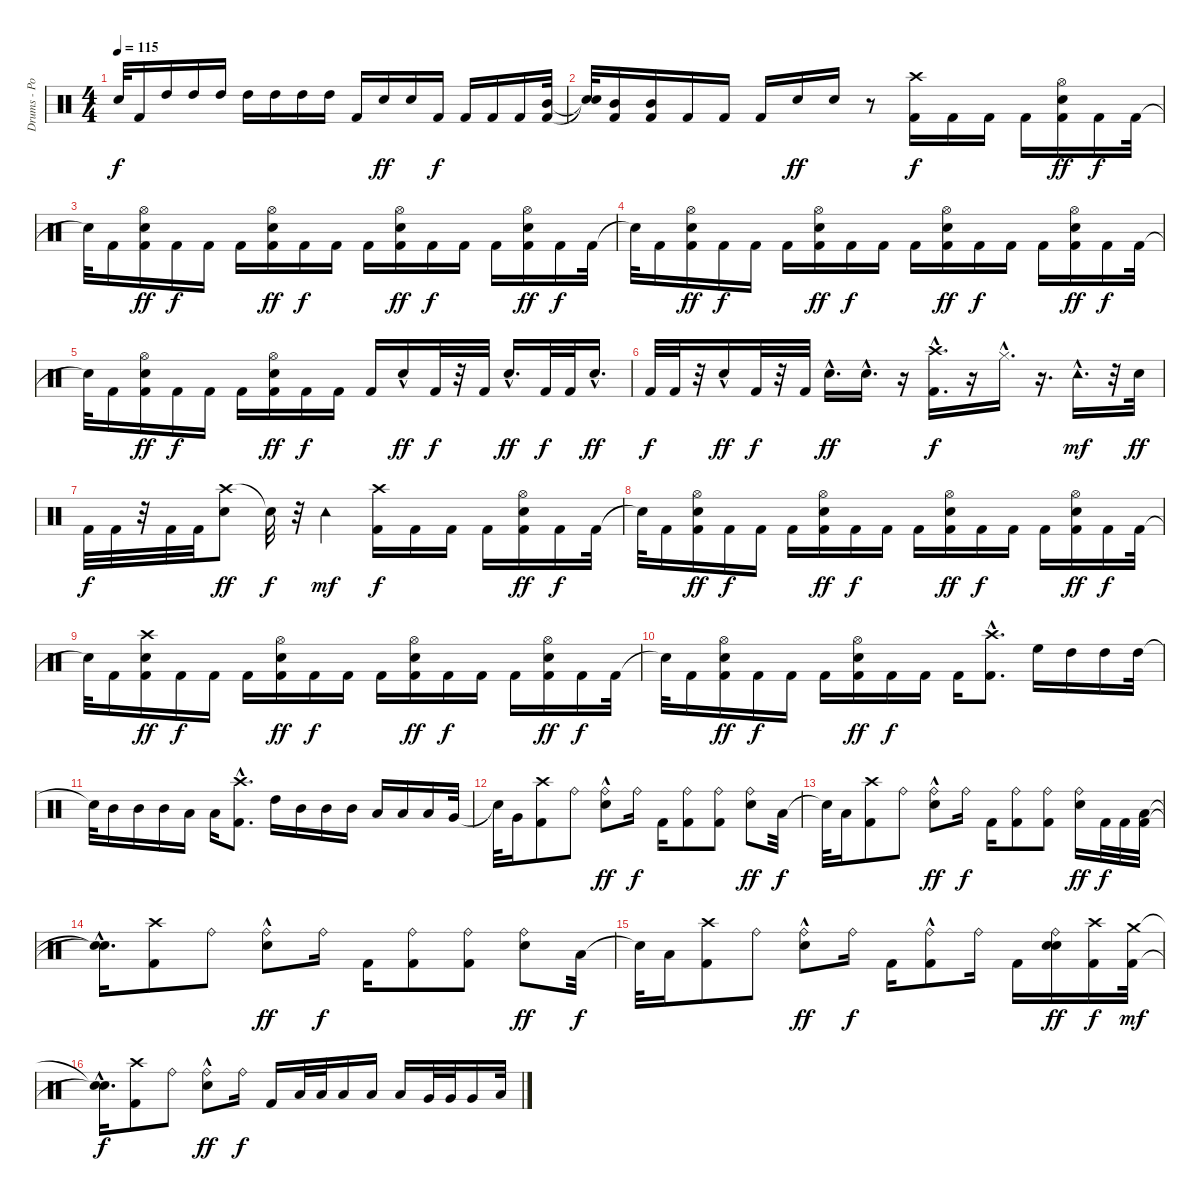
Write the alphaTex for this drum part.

\track ("Drums - Portnoy" "Drums - Po") {instrument percussion}
\staff {score}
\articulation defaults
\ts (4 4)
\tempo 115
\clef neutral
\ks c "Snare (hit)"{t}.32{dy f} "Kick (hit) 2".16 "High Tom (hit)".16 "High Tom (hit)".16 "High Tom (hit)".16 "High Tom (hit)".16 "High Tom (hit)".16 "High Tom (hit)".16 "High Tom (hit)".16 "Kick (hit) 2".16 "Electric Snare (hit)".16{dy ff} "Electric Snare (hit)".16 "Kick (hit) 2".16{dy f} "Kick (hit) 2".16 "Kick (hit) 2".16 "Kick (hit) 2".16
("Kick (hit) 2" "Mid Tom (hit)").32 |
("Snare (hit)"{t} "Snare (hit)"{t}).32 ("Kick (hit) 2" "Mid Tom (hit)").16 ("Kick (hit) 2" "Mid Tom (hit)").16 "Kick (hit) 2".16 "Kick (hit) 2".16 "Kick (hit) 2".16 "Electric Snare (hit)".16{dy ff} "Electric Snare (hit)".16 r.8 ("Crash high (hit)" "Kick (hit) 2").16{dy f} "Kick (hit) 2".16 "Kick (hit) 2".16 "Kick (hit) 2".16 ("Kick (hit) 2" "Hi-Hat (open)" "Electric Snare (hit)").16{dy ff} "Kick (hit) 2".16{dy f} "Kick (hit) 2".32 |
"Snare (hit)"{t}.32 "Kick (hit) 2".16 ("Kick (hit) 2" "Hi-Hat (open)" "Electric Snare (hit)").16{dy ff} "Kick (hit) 2".16{dy f} "Kick (hit) 2".16 "Kick (hit) 2".16 ("Kick (hit) 2" "Hi-Hat (open)" "Electric Snare (hit)").16{dy ff} "Kick (hit) 2".16{dy f} "Kick (hit) 2".16 "Kick (hit) 2".16 ("Kick (hit) 2" "Hi-Hat (open)" "Electric Snare (hit)").16{dy ff} "Kick (hit) 2".16{dy f} "Kick (hit) 2".16 "Kick (hit) 2".16 ("Kick (hit) 2" "Hi-Hat (open)" "Electric Snare (hit)").16{dy ff} "Kick (hit) 2".16{dy f} "Kick (hit) 2".32 |
"Snare (hit)"{t}.32 "Kick (hit) 2".16 ("Kick (hit) 2" "Hi-Hat (open)" "Electric Snare (hit)").16{dy ff} "Kick (hit) 2".16{dy f} "Kick (hit) 2".16 "Kick (hit) 2".16 ("Kick (hit) 2" "Hi-Hat (open)" "Electric Snare (hit)").16{dy ff} "Kick (hit) 2".16{dy f} "Kick (hit) 2".16 "Kick (hit) 2".16 ("Kick (hit) 2" "Hi-Hat (open)" "Electric Snare (hit)").16{dy ff} "Kick (hit) 2".16{dy f} "Kick (hit) 2".16 "Kick (hit) 2".16 ("Kick (hit) 2" "Hi-Hat (open)" "Electric Snare (hit)").16{dy ff} "Kick (hit) 2".16{dy f} "Kick (hit) 2".32 |
"Snare (hit)"{t}.32 "Kick (hit) 2".16 ("Kick (hit) 2" "Hi-Hat (open)" "Electric Snare (hit)").16{dy ff} "Kick (hit) 2".16{dy f} "Kick (hit) 2".16 "Kick (hit) 2".16 ("Kick (hit) 2" "Hi-Hat (open)" "Electric Snare (hit)").16{dy ff} "Kick (hit) 2".16{dy f} "Kick (hit) 2".16 "Kick (hit) 2".16 "Electric Snare (hit)"{hac}.16{dy ff} "Kick (hit) 2".32{dy f} r.32 "Kick (hit) 2".32 "Electric Snare (hit)"{hac}.16{d dy ff} "Kick (hit) 2".32{dy f} "Kick (hit) 2".32 "Electric Snare (hit)"{hac}.16{d dy ff} |
"Kick (hit) 2".32{dy f} "Kick (hit) 2".32 r.32 "Electric Snare (hit)"{hac}.16{dy ff} "Kick (hit) 2".32{dy f} r.32 "Kick (hit) 2".32 "Electric Snare (hit)"{hac}.16{d dy ff} "Electric Snare (hit)"{hac}.16{d} r.16 ("Crash high (hit)"{hac} "Kick (hit) 2"{hac}).16{d dy f} r.16 "Hi-Hat (closed)"{hac}.16{d} r.16{d} "Tambourine (hit)"{hac}.16{d dy mf} r.32 "Electric Snare (hit)".32{dy ff} |
"Kick (hit) 2".32{dy f} "Kick (hit) 2".32 r.32 "Kick (hit) 2".32 "Kick (hit) 2".32 ("Crash high (hit)" "Electric Snare (hit)").8{dy ff} "Snare (hit)"{t}.32{dy f} r.32 "Tambourine (hit)".4{dy mf} ("Kick (hit) 2" "Crash high (hit)").16{dy f} "Kick (hit) 2".16 "Kick (hit) 2".16 "Kick (hit) 2".16 ("Kick (hit) 2" "Hi-Hat (open)" "Electric Snare (hit)").16{dy ff} "Kick (hit) 2".16{dy f} "Kick (hit) 2".32 |
"Snare (hit)"{t}.32 "Kick (hit) 2".16 ("Kick (hit) 2" "Hi-Hat (open)" "Electric Snare (hit)").16{dy ff} "Kick (hit) 2".16{dy f} "Kick (hit) 2".16 "Kick (hit) 2".16 ("Kick (hit) 2" "Hi-Hat (open)" "Electric Snare (hit)").16{dy ff} "Kick (hit) 2".16{dy f} "Kick (hit) 2".16 "Kick (hit) 2".16 ("Kick (hit) 2" "Hi-Hat (open)" "Electric Snare (hit)").16{dy ff} "Kick (hit) 2".16{dy f} "Kick (hit) 2".16 "Kick (hit) 2".16 ("Kick (hit) 2" "Hi-Hat (open)" "Electric Snare (hit)").16{dy ff} "Kick (hit) 2".16{dy f} "Kick (hit) 2".32 |
"Snare (hit)"{t}.32 "Kick (hit) 2".16 ("Kick (hit) 2" "Crash high (hit)" "Electric Snare (hit)").16{dy ff} "Kick (hit) 2".16{dy f} "Kick (hit) 2".16 "Kick (hit) 2".16 ("Kick (hit) 2" "Hi-Hat (open)" "Electric Snare (hit)").16{dy ff} "Kick (hit) 2".16{dy f} "Kick (hit) 2".16 "Kick (hit) 2".16 ("Kick (hit) 2" "Hi-Hat (open)" "Electric Snare (hit)").16{dy ff} "Kick (hit) 2".16{dy f} "Kick (hit) 2".16 "Kick (hit) 2".16 ("Kick (hit) 2" "Hi-Hat (open)" "Electric Snare (hit)").16{dy ff} "Kick (hit) 2".16{dy f} "Kick (hit) 2".32 |
"Snare (hit)"{t}.32 "Kick (hit) 2".16 ("Kick (hit) 2" "Hi-Hat (open)" "Electric Snare (hit)").16{dy ff} "Kick (hit) 2".16{dy f} "Kick (hit) 2".16 "Kick (hit) 2".16 ("Kick (hit) 2" "Hi-Hat (open)" "Electric Snare (hit)").16{dy ff} "Kick (hit) 2".16{dy f} "Kick (hit) 2".16 "Kick (hit) 2".16 ("Crash high (hit)"{hac} "Kick (hit) 2"{hac}).8{d} "High Floor Tom (hit)".16 "High Tom (hit)".16 "High Tom (hit)".16 "High Tom (hit)".32 |
"Snare (hit)"{t}.32 "Mid Tom (hit)".16 "Mid Tom (hit)".16 "Mid Tom (hit)".16 "Low Tom (hit)".16 "Low Tom (hit)".16 ("Crash high (hit)"{hac} "Kick (hit) 2"{hac}).8{d} "High Tom (hit)".16 "Mid Tom (hit)".16 "Mid Tom (hit)".16 "Mid Tom (hit)".16 "Low Tom (hit)".16 "Low Tom (hit)".16 "Low Tom (hit)".16 "Very Low Tom (hit)".32 |
"Snare (hit)"{t}.32 "Very Low Tom (hit)".16 ("Kick (hit) 2" "Crash high (hit)").8 "Ride (bell)".8 ("Ride (bell)" "Electric Snare (hit)"{hac}).8{dy ff} "Ride (bell)".16{dy f} "Kick (hit) 2".16 ("Kick (hit) 2" "Ride (bell)").8 ("Kick (hit) 2" "Ride (bell)").8 ("Ride (bell)" "Electric Snare (hit)").8{dy ff} "Low Floor Tom (hit)".32{dy f} |
"Snare (hit)"{t}.32 "Low Floor Tom (hit)".16 ("Crash high (hit)" "Kick (hit) 2").8 "Ride (bell)".8 ("Ride (bell)" "Electric Snare (hit)"{hac}).8{dy ff} "Ride (bell)".16{dy f} "Kick (hit) 2".16 ("Kick (hit) 2" "Ride (bell)").8 ("Kick (hit) 2" "Ride (bell)").8 ("Ride (bell)" "Electric Snare (hit)").16{dy ff} "Kick (hit) 2".32{dy f} "Kick (hit) 2".32 ("Low Floor Tom (hit)" "Kick (hit) 2").32 |
("Snare (hit)"{hac t} "Snare (hit)"{hac t}).16{d} ("Crash high (hit)" "Kick (hit) 2").8 "Ride (bell)".8 ("Ride (bell)" "Electric Snare (hit)"{hac}).8{dy ff} "Ride (bell)".16{dy f} "Kick (hit) 2".16 ("Kick (hit) 2" "Ride (bell)").8 ("Kick (hit) 2" "Ride (bell)").8 ("Ride (bell)" "Electric Snare (hit)").8{dy ff} "Low Floor Tom (hit)".32{dy f} |
"Snare (hit)"{t}.32 "Low Floor Tom (hit)".16 ("Crash high (hit)" "Kick (hit) 2").8 "Ride (bell)".8 ("Ride (bell)" "Electric Snare (hit)"{hac}).8{dy ff} "Ride (bell)".16{dy f} "Kick (hit) 2".16 ("Ride (bell)" "Kick (hit) 2"{hac}).8 "Ride (bell)".16 "Kick (hit) 2".16 ("Ride (bell)" "Electric Snare (hit)" "Electric Snare (hit)").16{dy ff} ("Crash high (hit)" "Kick (hit) 2").16{dy f} ("Kick (hit) 2" "Crash medium (hit)").32{dy mf} |
("Snare (hit)"{hac t} "Snare (hit)"{hac t}).16{d dy f} ("Kick (hit) 2" "Crash high (hit)").8 "Ride (bell)".8 ("Ride (bell)" "Electric Snare (hit)"{hac}).8{dy ff} "Ride (bell)".16{dy f} "Kick (hit) 2".16 "Low Tom (hit)".32 "Low Tom (hit)".32 "Low Tom (hit)".16 "Low Tom (hit)".16 "Low Tom (hit)".16 "Very Low Tom (hit)".32 "Very Low Tom (hit)".32 "Very Low Tom (hit)".16 "Low Floor Tom (hit)".32
